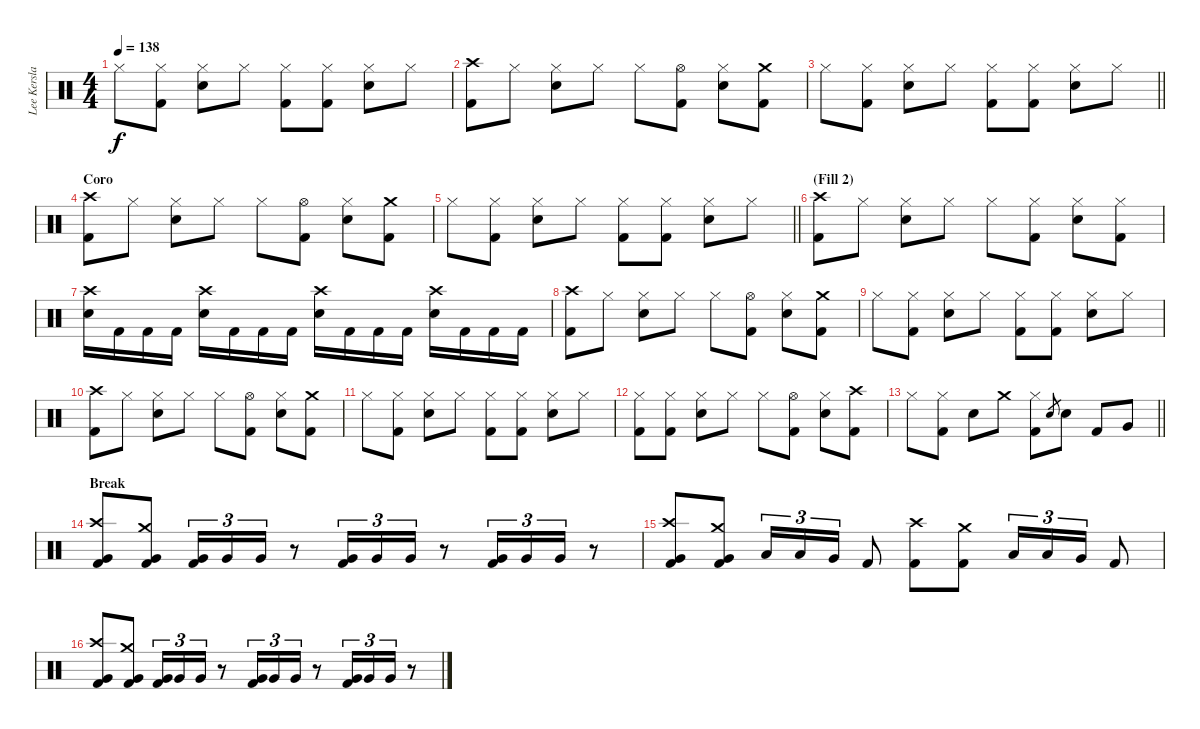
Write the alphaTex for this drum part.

\track ("Lee Kerslake" "Lee Kersla") {instrument percussion}
\staff {score}
\articulation defaults
\ts (4 4)
\tempo 138
\clef neutral
\ks c "Hi-Hat (closed)".8{dy f}
("Hi-Hat (closed)" "Kick (hit) 2").8 ("Hi-Hat (closed)" "Snare (hit) 2").8 "Hi-Hat (closed)".8 ("Hi-Hat (closed)" "Kick (hit) 2").8 ("Hi-Hat (closed)" "Kick (hit) 2").8 ("Hi-Hat (closed)" "Snare (hit) 2").8 "Hi-Hat (closed)".8 |
("Crash high (hit)" "Kick (hit) 2").8 "Hi-Hat (closed)".8 ("Hi-Hat (closed)" "Snare (hit) 2").8 "Hi-Hat (closed)".8 "Hi-Hat (closed)".8 ("Hi-Hat (open)" "Kick (hit) 2").8 ("Hi-Hat (closed)" "Snare (hit) 2").8 ("Crash medium (hit)" "Kick (hit) 2").8 |
\barLineRight lightlight "Hi-Hat (closed)".8
("Hi-Hat (closed)" "Kick (hit) 2").8 ("Hi-Hat (closed)" "Snare (hit) 2").8 "Hi-Hat (closed)".8 ("Hi-Hat (closed)" "Kick (hit) 2").8 ("Hi-Hat (closed)" "Kick (hit) 2").8 ("Hi-Hat (closed)" "Snare (hit) 2").8 "Hi-Hat (closed)".8 |
\section ("" "Coro")
("Crash high (hit)" "Kick (hit) 2").8 "Hi-Hat (closed)".8 ("Hi-Hat (closed)" "Snare (hit) 2").8 "Hi-Hat (closed)".8 "Hi-Hat (closed)".8 ("Hi-Hat (open)" "Kick (hit) 2").8 ("Hi-Hat (closed)" "Snare (hit) 2").8 ("Crash medium (hit)" "Kick (hit) 2").8 |
\barLineRight lightlight "Hi-Hat (closed)".8
("Hi-Hat (closed)" "Kick (hit) 2").8 ("Hi-Hat (closed)" "Snare (hit) 2").8 "Hi-Hat (closed)".8 ("Hi-Hat (closed)" "Kick (hit) 2").8 ("Hi-Hat (closed)" "Kick (hit) 2").8 ("Hi-Hat (closed)" "Snare (hit) 2").8 "Hi-Hat (closed)".8 |
\section ("" "(Fill 2)")
("Crash high (hit)" "Kick (hit) 2").8 "Hi-Hat (closed)".8 ("Hi-Hat (closed)" "Snare (hit) 2").8 "Hi-Hat (closed)".8 "Hi-Hat (closed)".8 ("Hi-Hat (closed)" "Kick (hit) 2").8 ("Hi-Hat (closed)" "Snare (hit) 2").8 ("Hi-Hat (closed)" "Kick (hit) 2").8 |
("Snare (hit) 2" "Crash high (hit)").16 "Kick (hit) 2".16 "Kick (hit) 2".16 "Kick (hit) 2".16 ("Snare (hit) 2" "Crash high (hit)").16 "Kick (hit) 2".16 "Kick (hit) 2".16 "Kick (hit) 2".16 ("Snare (hit) 2" "Crash high (hit)").16 "Kick (hit) 2".16 "Kick (hit) 2".16 "Kick (hit) 2".16 ("Snare (hit) 2" "Crash high (hit)").16 "Kick (hit) 2".16 "Kick (hit) 2".16 "Kick (hit) 2".16 |
("Crash high (hit)" "Kick (hit) 2").8 "Hi-Hat (closed)".8 ("Hi-Hat (closed)" "Snare (hit) 2").8 "Hi-Hat (closed)".8 "Hi-Hat (closed)".8 ("Hi-Hat (open)" "Kick (hit) 2").8 ("Hi-Hat (closed)" "Snare (hit) 2").8 ("Crash medium (hit)" "Kick (hit) 2").8 |
"Hi-Hat (closed)".8 ("Hi-Hat (closed)" "Kick (hit) 2").8 ("Hi-Hat (closed)" "Snare (hit) 2").8 "Hi-Hat (closed)".8 ("Hi-Hat (closed)" "Kick (hit) 2").8 ("Hi-Hat (closed)" "Kick (hit) 2").8 ("Hi-Hat (closed)" "Snare (hit) 2").8 "Hi-Hat (closed)".8 |
("Crash high (hit)" "Kick (hit) 2").8 "Hi-Hat (closed)".8 ("Hi-Hat (closed)" "Snare (hit) 2").8 "Hi-Hat (closed)".8 "Hi-Hat (closed)".8 ("Hi-Hat (open)" "Kick (hit) 2").8 ("Hi-Hat (closed)" "Snare (hit) 2").8 ("Crash medium (hit)" "Kick (hit) 2").8 |
"Hi-Hat (closed)".8 ("Hi-Hat (closed)" "Kick (hit) 2").8 ("Hi-Hat (closed)" "Snare (hit) 2").8 "Hi-Hat (closed)".8 ("Hi-Hat (closed)" "Kick (hit) 2").8 ("Hi-Hat (closed)" "Kick (hit) 2").8 ("Hi-Hat (closed)" "Snare (hit) 2").8 "Hi-Hat (closed)".8 |
("Hi-Hat (closed)" "Kick (hit) 2").8 ("Hi-Hat (closed)" "Kick (hit) 2").8 ("Hi-Hat (closed)" "Snare (hit) 2").8 "Hi-Hat (closed)".8 "Hi-Hat (closed)".8 ("Hi-Hat (open)" "Kick (hit) 2").8 ("Hi-Hat (closed)" "Snare (hit) 2").8 ("Crash high (hit)" "Kick (hit) 2").8 |
\barLineRight lightlight "Hi-Hat (closed)".8
("Hi-Hat (closed)" "Kick (hit) 2").8 "Snare (hit) 2".8 "Crash medium (hit)".8 ("Hi-Hat (closed)" "Kick (hit) 2").8 "Snare (hit) 2".8{gr} "Snare (hit) 2".8 "Kick (hit) 2".8 "Very Low Tom (hit)".8 |
\section ("" "Break")
("Very Low Tom (hit)" "Crash high (hit)" "Kick (hit) 2").8 ("Very Low Tom (hit)" "Crash medium (hit)" "Kick (hit) 2").8 ("Very Low Tom (hit)" "Kick (hit) 2").16{tu (3 2)} "Very Low Tom (hit)".16{tu (3 2)} "Very Low Tom (hit)".16{tu (3 2)} r.8 ("Very Low Tom (hit)" "Kick (hit) 2").16{tu (3 2)} "Very Low Tom (hit)".16{tu (3 2)} "Very Low Tom (hit)".16{tu (3 2)} r.8 ("Very Low Tom (hit)" "Kick (hit) 2").16{tu (3 2)} "Very Low Tom (hit)".16{tu (3 2)} "Very Low Tom (hit)".16{tu (3 2)} r.8 |
("Very Low Tom (hit)" "Crash high (hit)" "Kick (hit) 2").8 ("Very Low Tom (hit)" "Crash medium (hit)" "Kick (hit) 2").8 "Low Tom (hit)".16{tu (3 2)} "Low Tom (hit)".16{tu (3 2)} "Very Low Tom (hit)".16{tu (3 2)} "Kick (hit) 2".8 ("Crash high (hit)" "Kick (hit) 2").8 ("Crash medium (hit)" "Kick (hit) 2").8 "Low Tom (hit)".16{tu (3 2)} "Low Tom (hit)".16{tu (3 2)} "Very Low Tom (hit)".16{tu (3 2)} "Kick (hit) 2".8 |
("Very Low Tom (hit)" "Crash high (hit)" "Kick (hit) 2").8 ("Very Low Tom (hit)" "Crash medium (hit)" "Kick (hit) 2").8 ("Very Low Tom (hit)" "Kick (hit) 2").16{tu (3 2)} "Very Low Tom (hit)".16{tu (3 2)} "Very Low Tom (hit)".16{tu (3 2)} r.8 ("Very Low Tom (hit)" "Kick (hit) 2").16{tu (3 2)} "Very Low Tom (hit)".16{tu (3 2)} "Very Low Tom (hit)".16{tu (3 2)} r.8 ("Very Low Tom (hit)" "Kick (hit) 2").16{tu (3 2)} "Very Low Tom (hit)".16{tu (3 2)} "Very Low Tom (hit)".16{tu (3 2)} r.8
